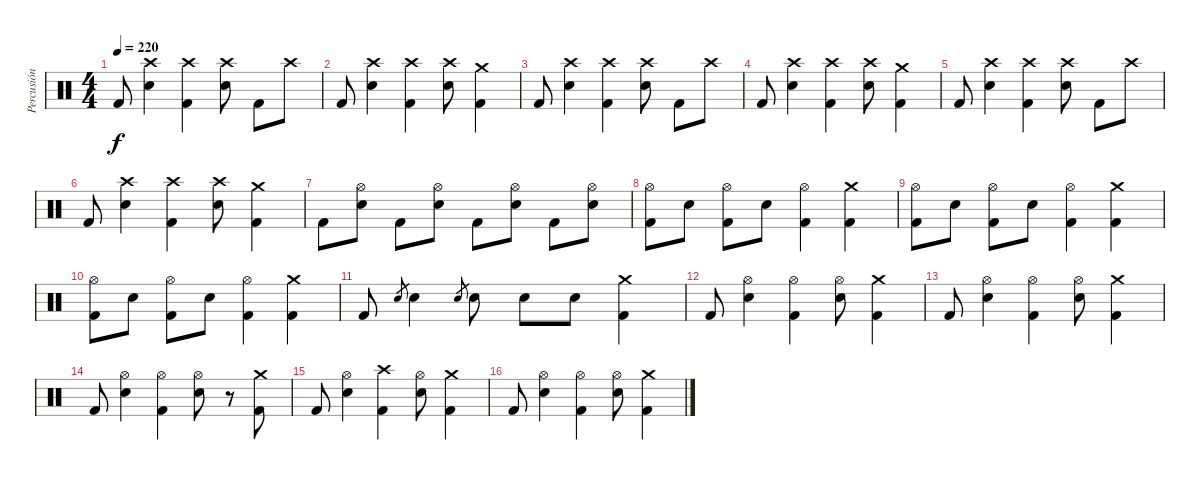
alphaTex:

\track ("Percusión" "Percusión") {instrument percussion}
\staff {score}
\articulation defaults
\ts (4 4)
\tempo 220
\clef neutral
\ks c "Kick (hit) 2".8{dy f}
("Crash high (hit)" "Snare (hit) 2").4 ("Crash high (hit)" "Kick (hit) 2").4 ("Crash high (hit)" "Snare (hit) 2").8 "Kick (hit) 2".8 "Crash high (hit)".8 |
"Kick (hit) 2".8 ("Crash high (hit)" "Snare (hit) 2").4 ("Crash high (hit)" "Kick (hit) 2").4 ("Crash high (hit)" "Snare (hit) 2").8 ("Crash medium (hit)" "Kick (hit) 2").4 |
"Kick (hit) 2".8 ("Crash high (hit)" "Snare (hit) 2").4 ("Crash high (hit)" "Kick (hit) 2").4 ("Crash high (hit)" "Snare (hit) 2").8 "Kick (hit) 2".8 "Crash high (hit)".8 |
"Kick (hit) 2".8 ("Crash high (hit)" "Snare (hit) 2").4 ("Crash high (hit)" "Kick (hit) 2").4 ("Crash high (hit)" "Snare (hit) 2").8 ("Crash medium (hit)" "Kick (hit) 2").4 |
"Kick (hit) 2".8 ("Crash high (hit)" "Snare (hit) 2").4 ("Crash high (hit)" "Kick (hit) 2").4 ("Crash high (hit)" "Snare (hit) 2").8 "Kick (hit) 2".8 "Crash high (hit)".8 |
"Kick (hit) 2".8 ("Crash high (hit)" "Snare (hit) 2").4 ("Crash high (hit)" "Kick (hit) 2").4 ("Crash high (hit)" "Snare (hit) 2").8 ("Crash medium (hit)" "Kick (hit) 2").4 |
"Kick (hit) 2".8 ("Hi-Hat (open)" "Snare (hit) 2").8 "Kick (hit) 2".8 ("Hi-Hat (open)" "Snare (hit) 2").8 "Kick (hit) 2".8 ("Hi-Hat (open)" "Snare (hit) 2").8 "Kick (hit) 2".8 ("Hi-Hat (open)" "Snare (hit) 2").8 |
("Hi-Hat (open)" "Kick (hit) 2").8 "Snare (hit) 2".8 ("Hi-Hat (open)" "Kick (hit) 2").8 "Snare (hit) 2".8 ("Hi-Hat (open)" "Kick (hit) 2").4 ("Crash medium (hit)" "Kick (hit) 2").4 |
("Hi-Hat (open)" "Kick (hit) 2").8 "Snare (hit) 2".8 ("Hi-Hat (open)" "Kick (hit) 2").8 "Snare (hit) 2".8 ("Hi-Hat (open)" "Kick (hit) 2").4 ("Crash medium (hit)" "Kick (hit) 2").4 |
("Hi-Hat (open)" "Kick (hit) 2").8 "Snare (hit) 2".8 ("Hi-Hat (open)" "Kick (hit) 2").8 "Snare (hit) 2".8 ("Hi-Hat (open)" "Kick (hit) 2").4 ("Crash medium (hit)" "Kick (hit) 2").4 |
"Kick (hit) 2".8 "Snare (hit) 2".8{gr} "Snare (hit) 2".4 "Snare (hit) 2".8{gr} "Snare (hit) 2".8 "Snare (hit) 2".8 "Snare (hit) 2".8 ("Crash medium (hit)" "Kick (hit) 2").4 |
"Kick (hit) 2".8 ("Hi-Hat (open)" "Snare (hit) 2").4 ("Hi-Hat (open)" "Kick (hit) 2").4 ("Hi-Hat (open)" "Snare (hit) 2").8 ("Crash medium (hit)" "Kick (hit) 2").4 |
"Kick (hit) 2".8 ("Hi-Hat (open)" "Snare (hit) 2").4 ("Hi-Hat (open)" "Kick (hit) 2").4 ("Hi-Hat (open)" "Snare (hit) 2").8 ("Crash medium (hit)" "Kick (hit) 2").4 |
"Kick (hit) 2".8 ("Hi-Hat (open)" "Snare (hit) 2").4 ("Hi-Hat (open)" "Kick (hit) 2").4 ("Hi-Hat (open)" "Snare (hit) 2").8 r.8 ("Crash medium (hit)" "Kick (hit) 2").8 |
"Kick (hit) 2".8 ("Hi-Hat (open)" "Snare (hit) 2").4 ("Crash high (hit)" "Kick (hit) 2").4 ("Hi-Hat (open)" "Snare (hit) 2").8 ("Crash medium (hit)" "Kick (hit) 2").4 |
"Kick (hit) 2".8 ("Hi-Hat (open)" "Snare (hit) 2").4 ("Hi-Hat (open)" "Kick (hit) 2").4 ("Hi-Hat (open)" "Snare (hit) 2").8 ("Crash medium (hit)" "Kick (hit) 2").4
